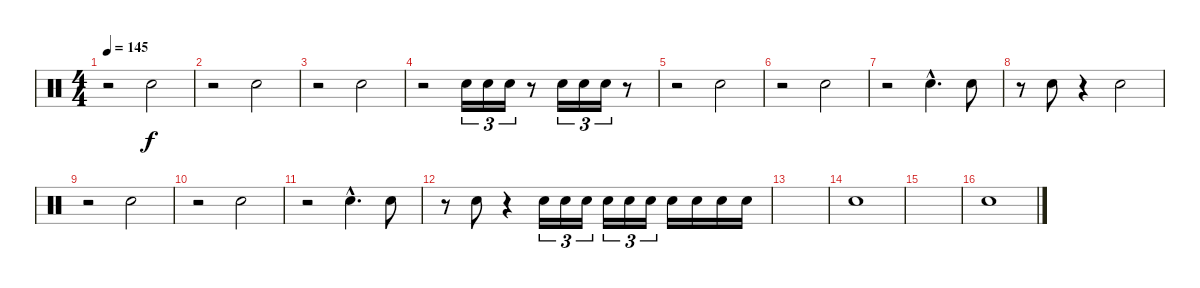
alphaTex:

\track "" {instrument percussion}
\staff {score}
\articulation defaults
\ts (4 4)
\tempo 145
\clef neutral
\ks c
r.2{dy f} "Electric Snare (hit)".2 |
r.2 "Electric Snare (hit)".2 |
r.2 "Electric Snare (hit)".2 |
r.2 "Electric Snare (hit)".16{tu (3 2)} "Electric Snare (hit)".16{tu (3 2)} "Electric Snare (hit)".16{tu (3 2)} r.8 "Electric Snare (hit)".16{tu (3 2)} "Electric Snare (hit)".16{tu (3 2)} "Electric Snare (hit)".16{tu (3 2)} r.8 |
r.2 "Electric Snare (hit)".2 |
r.2 "Electric Snare (hit)".2 |
r.2 "Electric Snare (hit)"{hac}.4{d} "Electric Snare (hit)".8 |
r.8 "Electric Snare (hit)".8 r.4 "Electric Snare (hit)".2 |
r.2 "Electric Snare (hit)".2 |
r.2 "Electric Snare (hit)".2 |
r.2 "Electric Snare (hit)"{hac}.4{d} "Electric Snare (hit)".8 |
r.8 "Electric Snare (hit)".8 r.4 "Electric Snare (hit)".16{tu (3 2)} "Electric Snare (hit)".16{tu (3 2)} "Electric Snare (hit)".16{tu (3 2)} "Electric Snare (hit)".16{tu (3 2)} "Electric Snare (hit)".16{tu (3 2)} "Electric Snare (hit)".16{tu (3 2)} "Electric Snare (hit)".16 "Electric Snare (hit)".16 "Electric Snare (hit)".16 "Electric Snare (hit)".16 |
|
"Electric Snare (hit)".1 |
|
"Electric Snare (hit)".1
